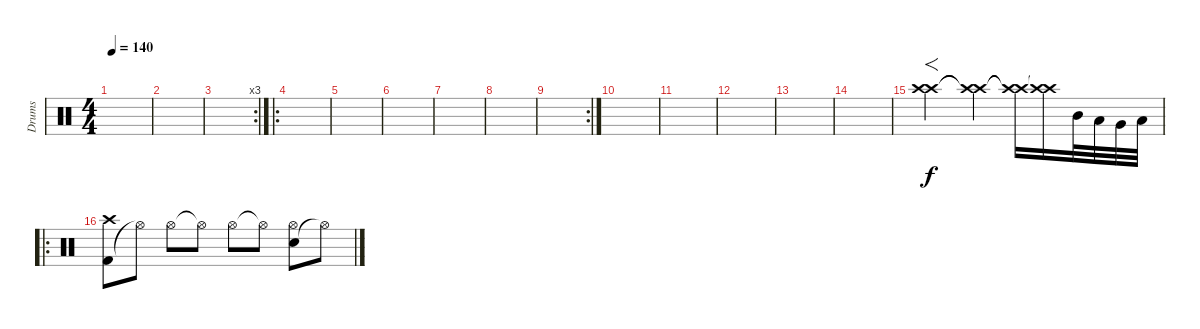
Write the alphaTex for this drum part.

\track ("Drums" "Drums") {instrument percussion}
\staff {score}
\articulation defaults
\ts (4 4)
\tempo 140
\clef neutral
\ks c
|
|
\rc 3
|
\ro
|
|
|
|
|
\rc 2
|
|
|
|
|
|
("Crash high (hit)" "Crash high (hit)").2{f} ("Crash high (hit)"{t} "Crash high (hit)"{t}).4 ("Crash high (hit)"{t} "Crash high (hit)"{t}).16 ("Crash high (hit)"{t} "Crash high (hit)"{t}).16 "Mid Tom (hit)".32 "Low Tom (hit)".32 "Very Low Tom (hit)".32 "Low Floor Tom (hit)".32 |
\ro
("Kick (hit) 2" "Crash high (hit)").8 "Hi-Hat (open)"{t}.8 "Hi-Hat (open)".8 "Hi-Hat (open)"{t}.8 "Hi-Hat (open)".8 "Hi-Hat (open)"{t}.8 ("Electric Snare (hit)" "Hi-Hat (open)").8 "Hi-Hat (open)"{t}.8
